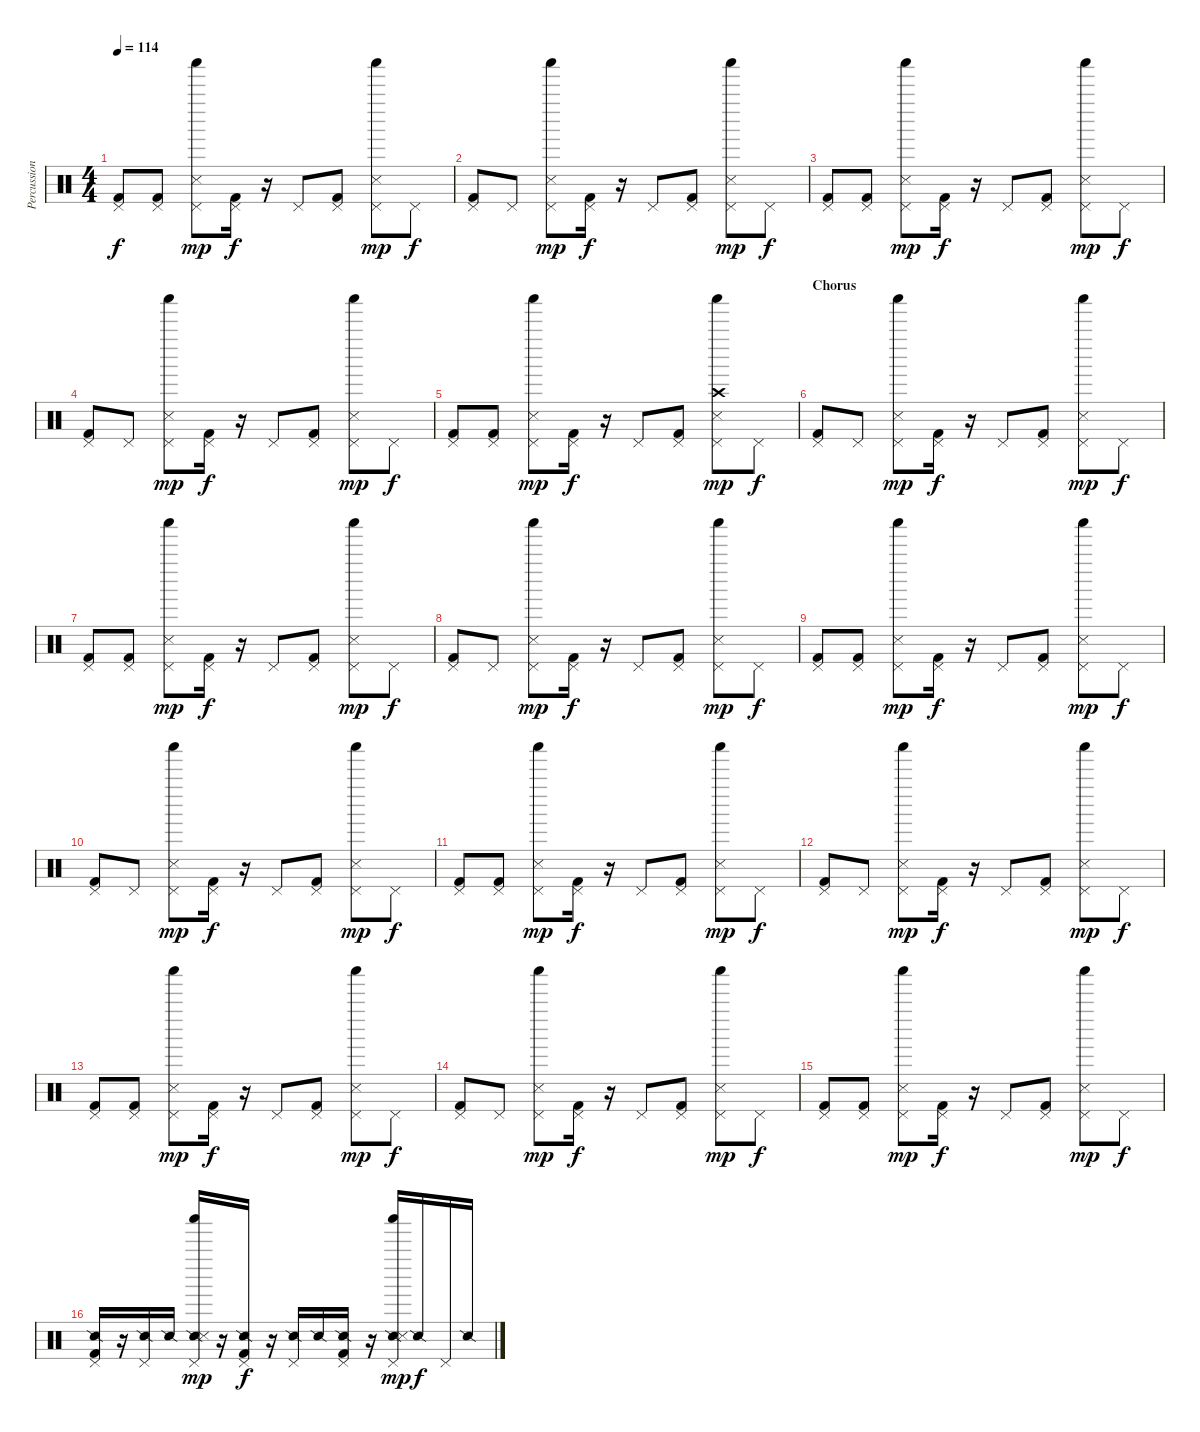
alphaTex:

\track ("Percussion" "Percussion") {instrument percussion}
\staff {score}
\articulation defaults
\ts (4 4)
\tempo 114
\clef neutral
\ks c
("Pedal Hi-Hat (hit)" "Kick (hit) 2").8{dy f} ("Pedal Hi-Hat (hit)" "Kick (hit) 2").8 ("Pedal Hi-Hat (hit)" "Snare (side stick) 3" "Shaker (hit)").8{dy mp} ("Pedal Hi-Hat (hit)" "Kick (hit) 2").16{dy f} r.16 "Pedal Hi-Hat (hit)".8 ("Pedal Hi-Hat (hit)" "Kick (hit) 2").8 ("Pedal Hi-Hat (hit)" "Snare (side stick) 3" "Shaker (hit)").8{dy mp} "Pedal Hi-Hat (hit)".8{dy f} |
("Pedal Hi-Hat (hit)" "Kick (hit) 2").8 "Pedal Hi-Hat (hit)".8 ("Pedal Hi-Hat (hit)" "Snare (side stick) 3" "Shaker (hit)").8{dy mp} ("Pedal Hi-Hat (hit)" "Kick (hit) 2").16{dy f} r.16 "Pedal Hi-Hat (hit)".8 ("Pedal Hi-Hat (hit)" "Kick (hit) 2").8 ("Pedal Hi-Hat (hit)" "Snare (side stick) 3" "Shaker (hit)").8{dy mp} "Pedal Hi-Hat (hit)".8{dy f} |
("Pedal Hi-Hat (hit)" "Kick (hit) 2").8 ("Pedal Hi-Hat (hit)" "Kick (hit) 2").8 ("Pedal Hi-Hat (hit)" "Snare (side stick) 3" "Shaker (hit)").8{dy mp} ("Pedal Hi-Hat (hit)" "Kick (hit) 2").16{dy f} r.16 "Pedal Hi-Hat (hit)".8 ("Pedal Hi-Hat (hit)" "Kick (hit) 2").8 ("Pedal Hi-Hat (hit)" "Snare (side stick) 3" "Shaker (hit)").8{dy mp} "Pedal Hi-Hat (hit)".8{dy f} |
("Pedal Hi-Hat (hit)" "Kick (hit) 2").8 "Pedal Hi-Hat (hit)".8 ("Pedal Hi-Hat (hit)" "Snare (side stick) 3" "Shaker (hit)").8{dy mp} ("Pedal Hi-Hat (hit)" "Kick (hit) 2").16{dy f} r.16 "Pedal Hi-Hat (hit)".8 ("Pedal Hi-Hat (hit)" "Kick (hit) 2").8 ("Pedal Hi-Hat (hit)" "Snare (side stick) 3" "Shaker (hit)").8{dy mp} "Pedal Hi-Hat (hit)".8{dy f} |
("Pedal Hi-Hat (hit)" "Kick (hit) 2").8 ("Pedal Hi-Hat (hit)" "Kick (hit) 2").8 ("Pedal Hi-Hat (hit)" "Snare (side stick) 3" "Shaker (hit)").8{dy mp} ("Pedal Hi-Hat (hit)" "Kick (hit) 2").16{dy f} r.16 "Pedal Hi-Hat (hit)".8 ("Pedal Hi-Hat (hit)" "Kick (hit) 2").8 ("Pedal Hi-Hat (hit)" "Crash high (hit)" "Snare (side stick) 3" "Shaker (hit)").8{dy mp} "Pedal Hi-Hat (hit)".8{dy f} |
\section ("" "Chorus")
("Pedal Hi-Hat (hit)" "Kick (hit) 2").8 "Pedal Hi-Hat (hit)".8 ("Pedal Hi-Hat (hit)" "Snare (side stick) 3" "Shaker (hit)").8{dy mp} ("Pedal Hi-Hat (hit)" "Kick (hit) 2").16{dy f} r.16 "Pedal Hi-Hat (hit)".8 ("Pedal Hi-Hat (hit)" "Kick (hit) 2").8 ("Pedal Hi-Hat (hit)" "Snare (side stick) 3" "Shaker (hit)").8{dy mp} "Pedal Hi-Hat (hit)".8{dy f} |
("Pedal Hi-Hat (hit)" "Kick (hit) 2").8 ("Pedal Hi-Hat (hit)" "Kick (hit) 2").8 ("Pedal Hi-Hat (hit)" "Snare (side stick) 3" "Shaker (hit)").8{dy mp} ("Pedal Hi-Hat (hit)" "Kick (hit) 2").16{dy f} r.16 "Pedal Hi-Hat (hit)".8 ("Pedal Hi-Hat (hit)" "Kick (hit) 2").8 ("Pedal Hi-Hat (hit)" "Snare (side stick) 3" "Shaker (hit)").8{dy mp} "Pedal Hi-Hat (hit)".8{dy f} |
("Pedal Hi-Hat (hit)" "Kick (hit) 2").8 "Pedal Hi-Hat (hit)".8 ("Pedal Hi-Hat (hit)" "Snare (side stick) 3" "Shaker (hit)").8{dy mp} ("Pedal Hi-Hat (hit)" "Kick (hit) 2").16{dy f} r.16 "Pedal Hi-Hat (hit)".8 ("Pedal Hi-Hat (hit)" "Kick (hit) 2").8 ("Pedal Hi-Hat (hit)" "Snare (side stick) 3" "Shaker (hit)").8{dy mp} "Pedal Hi-Hat (hit)".8{dy f} |
("Pedal Hi-Hat (hit)" "Kick (hit) 2").8 ("Pedal Hi-Hat (hit)" "Kick (hit) 2").8 ("Pedal Hi-Hat (hit)" "Snare (side stick) 3" "Shaker (hit)").8{dy mp} ("Pedal Hi-Hat (hit)" "Kick (hit) 2").16{dy f} r.16 "Pedal Hi-Hat (hit)".8 ("Pedal Hi-Hat (hit)" "Kick (hit) 2").8 ("Pedal Hi-Hat (hit)" "Snare (side stick) 3" "Shaker (hit)").8{dy mp} "Pedal Hi-Hat (hit)".8{dy f} |
("Pedal Hi-Hat (hit)" "Kick (hit) 2").8 "Pedal Hi-Hat (hit)".8 ("Pedal Hi-Hat (hit)" "Snare (side stick) 3" "Shaker (hit)").8{dy mp} ("Pedal Hi-Hat (hit)" "Kick (hit) 2").16{dy f} r.16 "Pedal Hi-Hat (hit)".8 ("Pedal Hi-Hat (hit)" "Kick (hit) 2").8 ("Pedal Hi-Hat (hit)" "Snare (side stick) 3" "Shaker (hit)").8{dy mp} "Pedal Hi-Hat (hit)".8{dy f} |
("Pedal Hi-Hat (hit)" "Kick (hit) 2").8 ("Pedal Hi-Hat (hit)" "Kick (hit) 2").8 ("Pedal Hi-Hat (hit)" "Snare (side stick) 3" "Shaker (hit)").8{dy mp} ("Pedal Hi-Hat (hit)" "Kick (hit) 2").16{dy f} r.16 "Pedal Hi-Hat (hit)".8 ("Pedal Hi-Hat (hit)" "Kick (hit) 2").8 ("Pedal Hi-Hat (hit)" "Snare (side stick) 3" "Shaker (hit)").8{dy mp} "Pedal Hi-Hat (hit)".8{dy f} |
("Pedal Hi-Hat (hit)" "Kick (hit) 2").8 "Pedal Hi-Hat (hit)".8 ("Pedal Hi-Hat (hit)" "Snare (side stick) 3" "Shaker (hit)").8{dy mp} ("Pedal Hi-Hat (hit)" "Kick (hit) 2").16{dy f} r.16 "Pedal Hi-Hat (hit)".8 ("Pedal Hi-Hat (hit)" "Kick (hit) 2").8 ("Pedal Hi-Hat (hit)" "Snare (side stick) 3" "Shaker (hit)").8{dy mp} "Pedal Hi-Hat (hit)".8{dy f} |
("Pedal Hi-Hat (hit)" "Kick (hit) 2").8 ("Pedal Hi-Hat (hit)" "Kick (hit) 2").8 ("Pedal Hi-Hat (hit)" "Snare (side stick) 3" "Shaker (hit)").8{dy mp} ("Pedal Hi-Hat (hit)" "Kick (hit) 2").16{dy f} r.16 "Pedal Hi-Hat (hit)".8 ("Pedal Hi-Hat (hit)" "Kick (hit) 2").8 ("Pedal Hi-Hat (hit)" "Snare (side stick) 3" "Shaker (hit)").8{dy mp} "Pedal Hi-Hat (hit)".8{dy f} |
("Pedal Hi-Hat (hit)" "Kick (hit) 2").8 "Pedal Hi-Hat (hit)".8 ("Pedal Hi-Hat (hit)" "Snare (side stick) 3" "Shaker (hit)").8{dy mp} ("Pedal Hi-Hat (hit)" "Kick (hit) 2").16{dy f} r.16 "Pedal Hi-Hat (hit)".8 ("Pedal Hi-Hat (hit)" "Kick (hit) 2").8 ("Pedal Hi-Hat (hit)" "Snare (side stick) 3" "Shaker (hit)").8{dy mp} "Pedal Hi-Hat (hit)".8{dy f} |
("Pedal Hi-Hat (hit)" "Kick (hit) 2").8 ("Pedal Hi-Hat (hit)" "Kick (hit) 2").8 ("Pedal Hi-Hat (hit)" "Snare (side stick) 3" "Shaker (hit)").8{dy mp} ("Pedal Hi-Hat (hit)" "Kick (hit) 2").16{dy f} r.16 "Pedal Hi-Hat (hit)".8 ("Pedal Hi-Hat (hit)" "Kick (hit) 2").8 ("Pedal Hi-Hat (hit)" "Snare (side stick) 3" "Shaker (hit)").8{dy mp} "Pedal Hi-Hat (hit)".8{dy f} |
("Pedal Hi-Hat (hit)" "Snare (side stick) 2" "Kick (hit) 2").16 r.16 ("Pedal Hi-Hat (hit)" "Snare (side stick) 2").16 "Snare (side stick) 2".16 ("Pedal Hi-Hat (hit)" "Snare (side stick) 2" "Snare (side stick) 3" "Shaker (hit)").16{dy mp} r.16 ("Pedal Hi-Hat (hit)" "Snare (side stick) 2" "Kick (hit) 2").16{dy f} r.16 ("Pedal Hi-Hat (hit)" "Snare (side stick) 2").16 "Snare (side stick) 2".16 ("Pedal Hi-Hat (hit)" "Snare (side stick) 2" "Kick (hit) 2").16 r.16 ("Pedal Hi-Hat (hit)" "Snare (side stick) 2" "Snare (side stick) 3" "Shaker (hit)").16{dy mp} "Snare (side stick) 2".16{dy f} "Pedal Hi-Hat (hit)".16 "Snare (side stick) 2".16
